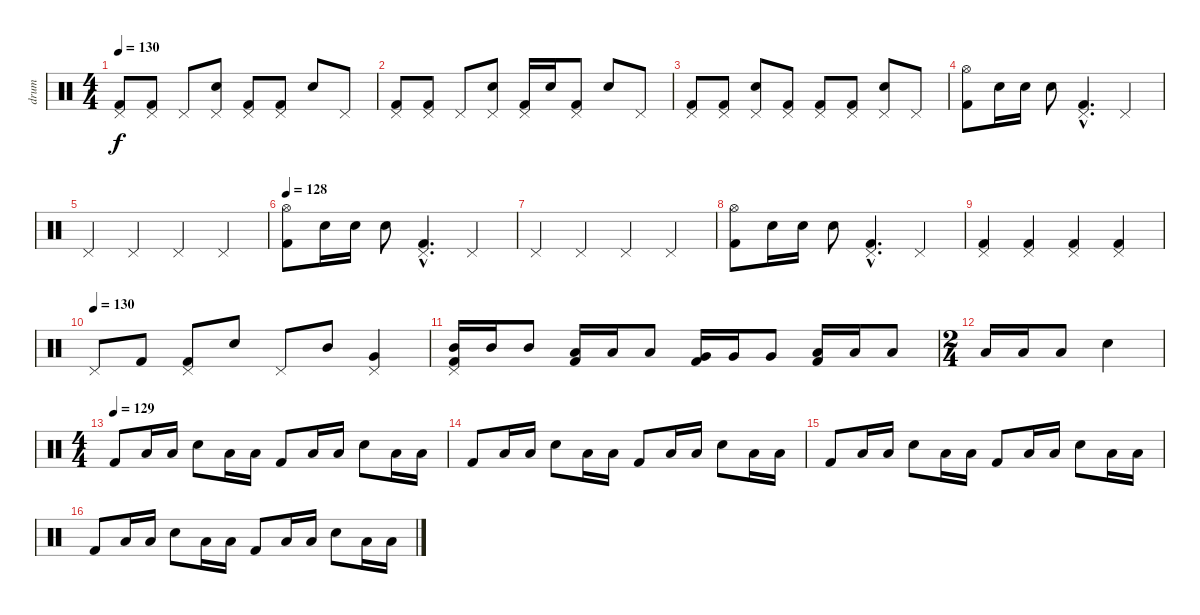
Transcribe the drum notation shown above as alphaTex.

\track ("drum" "drum") {instrument percussion}
\staff {score}
\articulation defaults
\ts (4 4)
\tempo 130
\clef neutral
\ks c
("Pedal Hi-Hat (hit)" "Kick (hit) 2").8{dy f} ("Pedal Hi-Hat (hit)" "Kick (hit) 2").8 "Pedal Hi-Hat (hit)".8 ("Pedal Hi-Hat (hit)" "Electric Snare (hit)").8 ("Pedal Hi-Hat (hit)" "Kick (hit) 2").8 ("Pedal Hi-Hat (hit)" "Kick (hit) 2").8 "Electric Snare (hit)".8 "Pedal Hi-Hat (hit)".8 |
("Pedal Hi-Hat (hit)" "Kick (hit) 2").8 ("Pedal Hi-Hat (hit)" "Kick (hit) 2").8 "Pedal Hi-Hat (hit)".8 ("Pedal Hi-Hat (hit)" "Electric Snare (hit)").8 ("Pedal Hi-Hat (hit)" "Kick (hit) 2").16 "Electric Snare (hit)".16 ("Pedal Hi-Hat (hit)" "Kick (hit) 2").8 "Electric Snare (hit)".8 "Pedal Hi-Hat (hit)".8 |
("Pedal Hi-Hat (hit)" "Kick (hit) 2").8 ("Pedal Hi-Hat (hit)" "Kick (hit) 2").8 ("Pedal Hi-Hat (hit)" "Electric Snare (hit)").8 ("Pedal Hi-Hat (hit)" "Kick (hit) 2").8 ("Pedal Hi-Hat (hit)" "Kick (hit) 2").8 ("Pedal Hi-Hat (hit)" "Kick (hit) 2").8 ("Pedal Hi-Hat (hit)" "Electric Snare (hit)").8 "Pedal Hi-Hat (hit)".8 |
("Hi-Hat (open)" "Kick (hit) 2").8 "Electric Snare (hit)".16 "Electric Snare (hit)".16 "Electric Snare (hit)".8 ("Pedal Hi-Hat (hit)"{hac} "Kick (hit) 2"{hac}).4{d} "Pedal Hi-Hat (hit)".4 |
"Pedal Hi-Hat (hit)".4 "Pedal Hi-Hat (hit)".4 "Pedal Hi-Hat (hit)".4 "Pedal Hi-Hat (hit)".4 |
\tempo 128
("Hi-Hat (open)" "Kick (hit) 2").8 "Electric Snare (hit)".16 "Electric Snare (hit)".16 "Electric Snare (hit)".8 ("Pedal Hi-Hat (hit)"{hac} "Kick (hit) 2"{hac}).4{d} "Pedal Hi-Hat (hit)".4 |
"Pedal Hi-Hat (hit)".4 "Pedal Hi-Hat (hit)".4 "Pedal Hi-Hat (hit)".4 "Pedal Hi-Hat (hit)".4 |
("Hi-Hat (open)" "Kick (hit) 2").8 "Electric Snare (hit)".16 "Electric Snare (hit)".16 "Electric Snare (hit)".8 ("Pedal Hi-Hat (hit)"{hac} "Kick (hit) 2"{hac}).4{d} "Pedal Hi-Hat (hit)".4 |
("Pedal Hi-Hat (hit)" "Kick (hit) 2").4 ("Pedal Hi-Hat (hit)" "Kick (hit) 2").4 ("Pedal Hi-Hat (hit)" "Kick (hit) 2").4 ("Pedal Hi-Hat (hit)" "Kick (hit) 2").4 |
\tempo (130)
"Pedal Hi-Hat (hit)".8 "Kick (hit) 2".8 ("Pedal Hi-Hat (hit)" "Kick (hit) 2").8 "Electric Snare (hit)".8 "Pedal Hi-Hat (hit)".8 "Mid Tom (hit)".8 ("Pedal Hi-Hat (hit)" "Very Low Tom (hit)").4 |
("Pedal Hi-Hat (hit)" "Mid Tom (hit)" "Kick (hit) 2").16 "Mid Tom (hit)".16 "Mid Tom (hit)".8 ("Low Tom (hit)" "Kick (hit) 2").16 "Low Tom (hit)".16 "Low Tom (hit)".8 ("Very Low Tom (hit)" "Kick (hit) 2").16 "Very Low Tom (hit)".16 "Very Low Tom (hit)".8 ("Low Floor Tom (hit)" "Kick (hit) 2").16 "Low Floor Tom (hit)".16 "Low Floor Tom (hit)".8 |
\ts (2 4)
"Low Tom (hit)".16 "Low Tom (hit)".16 "Low Tom (hit)".8 "Electric Snare (hit)".4 |
\ts (4 4)
\tempo (129)
"Kick (hit) 2".8 "Low Tom (hit)".16 "Low Tom (hit)".16 "Electric Snare (hit)".8 "Low Tom (hit)".16 "Low Tom (hit)".16 "Kick (hit) 2".8 "Low Tom (hit)".16 "Low Tom (hit)".16 "Electric Snare (hit)".8 "Low Tom (hit)".16 "Low Tom (hit)".16 |
"Kick (hit) 2".8 "Low Tom (hit)".16 "Low Tom (hit)".16 "Electric Snare (hit)".8 "Low Tom (hit)".16 "Low Tom (hit)".16 "Kick (hit) 2".8 "Low Tom (hit)".16 "Low Tom (hit)".16 "Electric Snare (hit)".8 "Low Tom (hit)".16 "Low Tom (hit)".16 |
"Kick (hit) 2".8 "Low Tom (hit)".16 "Low Tom (hit)".16 "Electric Snare (hit)".8 "Low Tom (hit)".16 "Low Tom (hit)".16 "Kick (hit) 2".8 "Low Tom (hit)".16 "Low Tom (hit)".16 "Electric Snare (hit)".8 "Low Tom (hit)".16 "Low Tom (hit)".16 |
"Kick (hit) 2".8 "Low Tom (hit)".16 "Low Tom (hit)".16 "Electric Snare (hit)".8 "Low Tom (hit)".16 "Low Tom (hit)".16 "Kick (hit) 2".8 "Low Tom (hit)".16 "Low Tom (hit)".16 "Electric Snare (hit)".8 "Low Tom (hit)".16 "Low Tom (hit)".16
